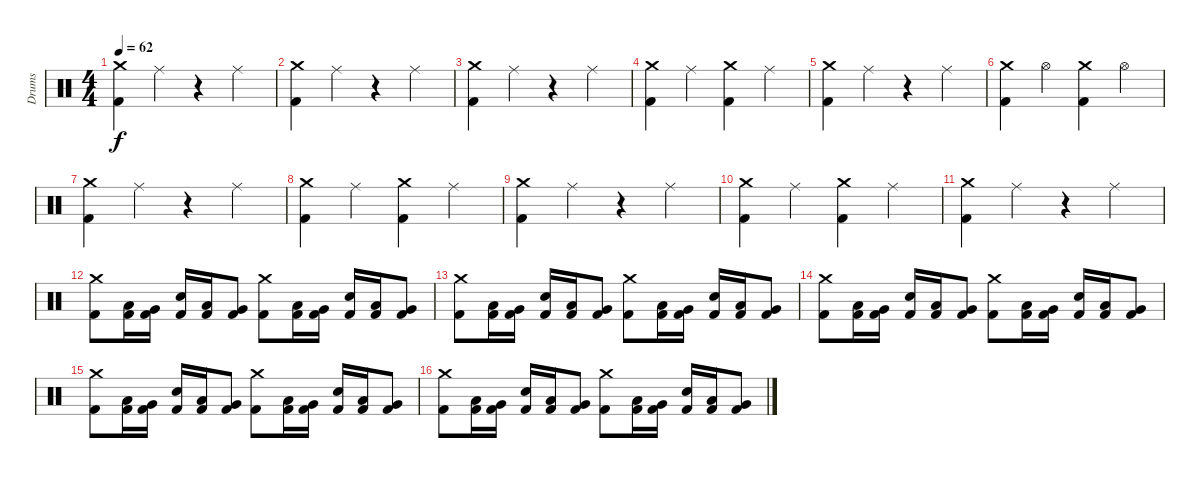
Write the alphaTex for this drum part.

\track ("Drums" "Drums") {instrument percussion}
\staff {score}
\articulation defaults
\ts (4 4)
\tempo 62
\clef neutral
\ks c
("Crash medium (hit)" "Kick (hit) 2").4{dy f} "Ride (middle)".4 r.4 "Ride (middle)".4 |
("Crash medium (hit)" "Kick (hit) 2").4 "Ride (middle)".4 r.4 "Ride (middle)".4 |
("Crash medium (hit)" "Kick (hit) 2").4 "Ride (middle)".4 r.4 "Ride (middle)".4 |
("Crash medium (hit)" "Kick (hit) 2").4 "Ride (middle)".4 ("Crash medium (hit)" "Kick (hit) 2").4 "Ride (middle)".4 |
("Crash medium (hit)" "Kick (hit) 2").4 "Ride (middle)".4 r.4 "Ride (middle)".4 |
("Crash medium (hit)" "Kick (hit) 2").4 "Hi-Hat (open)".4 ("Crash medium (hit)" "Kick (hit) 2").4 "Hi-Hat (open)".4 |
("Crash medium (hit)" "Kick (hit) 2").4 "Ride (middle)".4 r.4 "Ride (middle)".4 |
("Crash medium (hit)" "Kick (hit) 2").4 "Ride (middle)".4 ("Crash medium (hit)" "Kick (hit) 2").4 "Ride (middle)".4 |
("Crash medium (hit)" "Kick (hit) 2").4 "Ride (middle)".4 r.4 "Ride (middle)".4 |
("Crash medium (hit)" "Kick (hit) 2").4 "Ride (middle)".4 ("Crash medium (hit)" "Kick (hit) 2").4 "Ride (middle)".4 |
("Crash medium (hit)" "Kick (hit) 2").4 "Ride (middle)".4 r.4 "Ride (middle)".4 |
("Crash medium (hit)" "Kick (hit) 2").8 ("Low Tom (hit)" "Kick (hit) 2").16 ("Very Low Tom (hit)" "Kick (hit) 2").16 ("Electric Snare (hit)" "Kick (hit) 2").16 ("Low Tom (hit)" "Kick (hit) 2").16 ("Very Low Tom (hit)" "Kick (hit) 2").8 ("Crash medium (hit)" "Kick (hit) 2").8 ("Low Tom (hit)" "Kick (hit) 2").16 ("Very Low Tom (hit)" "Kick (hit) 2").16 ("Electric Snare (hit)" "Kick (hit) 2").16 ("Low Tom (hit)" "Kick (hit) 2").16 ("Very Low Tom (hit)" "Kick (hit) 2").8 |
("Crash medium (hit)" "Kick (hit) 2").8 ("Low Tom (hit)" "Kick (hit) 2").16 ("Very Low Tom (hit)" "Kick (hit) 2").16 ("Electric Snare (hit)" "Kick (hit) 2").16 ("Low Tom (hit)" "Kick (hit) 2").16 ("Very Low Tom (hit)" "Kick (hit) 2").8 ("Crash medium (hit)" "Kick (hit) 2").8 ("Low Tom (hit)" "Kick (hit) 2").16 ("Very Low Tom (hit)" "Kick (hit) 2").16 ("Electric Snare (hit)" "Kick (hit) 2").16 ("Low Tom (hit)" "Kick (hit) 2").16 ("Very Low Tom (hit)" "Kick (hit) 2").8 |
("Crash medium (hit)" "Kick (hit) 2").8 ("Low Tom (hit)" "Kick (hit) 2").16 ("Very Low Tom (hit)" "Kick (hit) 2").16 ("Electric Snare (hit)" "Kick (hit) 2").16 ("Low Tom (hit)" "Kick (hit) 2").16 ("Very Low Tom (hit)" "Kick (hit) 2").8 ("Crash medium (hit)" "Kick (hit) 2").8 ("Low Tom (hit)" "Kick (hit) 2").16 ("Very Low Tom (hit)" "Kick (hit) 2").16 ("Electric Snare (hit)" "Kick (hit) 2").16 ("Low Tom (hit)" "Kick (hit) 2").16 ("Very Low Tom (hit)" "Kick (hit) 2").8 |
("Crash medium (hit)" "Kick (hit) 2").8 ("Low Tom (hit)" "Kick (hit) 2").16 ("Very Low Tom (hit)" "Kick (hit) 2").16 ("Electric Snare (hit)" "Kick (hit) 2").16 ("Low Tom (hit)" "Kick (hit) 2").16 ("Very Low Tom (hit)" "Kick (hit) 2").8 ("Crash medium (hit)" "Kick (hit) 2").8 ("Low Tom (hit)" "Kick (hit) 2").16 ("Very Low Tom (hit)" "Kick (hit) 2").16 ("Electric Snare (hit)" "Kick (hit) 2").16 ("Low Tom (hit)" "Kick (hit) 2").16 ("Very Low Tom (hit)" "Kick (hit) 2").8 |
("Crash medium (hit)" "Kick (hit) 2").8 ("Low Tom (hit)" "Kick (hit) 2").16 ("Very Low Tom (hit)" "Kick (hit) 2").16 ("Electric Snare (hit)" "Kick (hit) 2").16 ("Low Tom (hit)" "Kick (hit) 2").16 ("Very Low Tom (hit)" "Kick (hit) 2").8 ("Crash medium (hit)" "Kick (hit) 2").8 ("Low Tom (hit)" "Kick (hit) 2").16 ("Very Low Tom (hit)" "Kick (hit) 2").16 ("Electric Snare (hit)" "Kick (hit) 2").16 ("Low Tom (hit)" "Kick (hit) 2").16 ("Very Low Tom (hit)" "Kick (hit) 2").8
